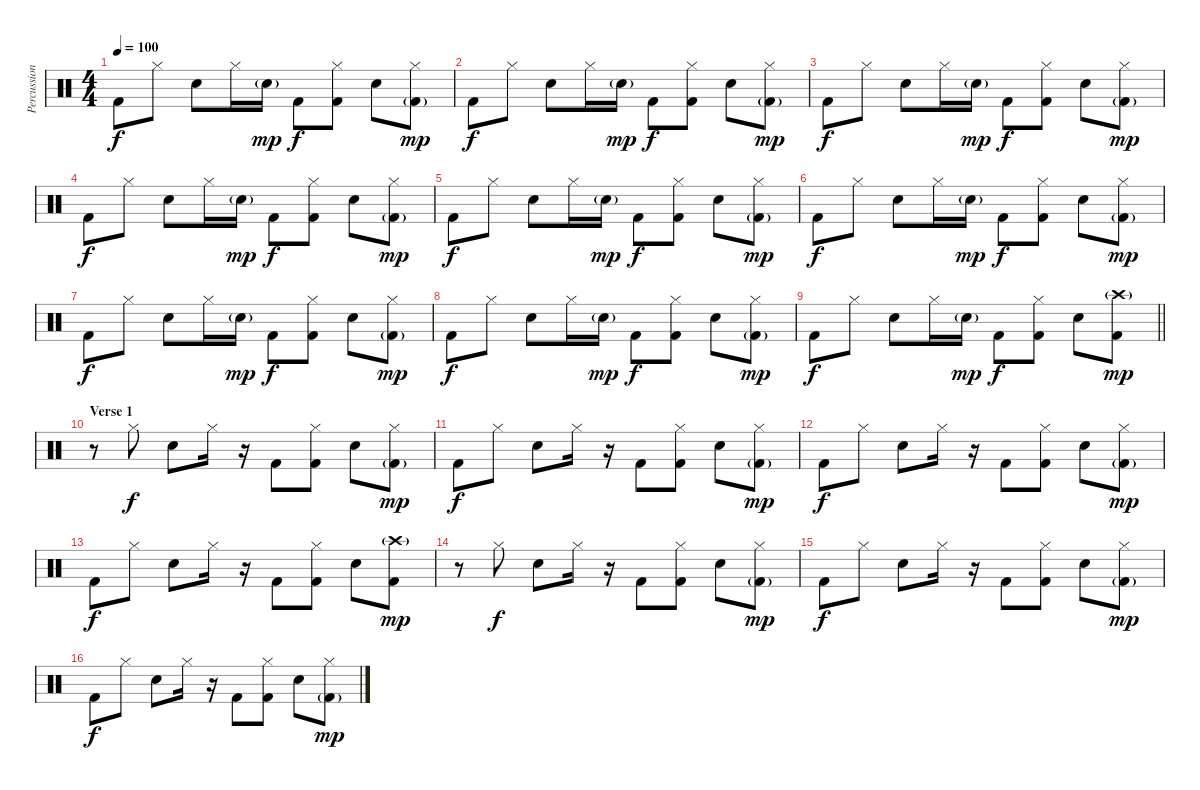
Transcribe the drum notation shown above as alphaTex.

\track ("Percussion" "Percussion") {instrument percussion}
\staff {score}
\articulation defaults
\ts (4 4)
\tempo 100
\clef neutral
\ks c "Kick (hit) 2".8{dy f} "Hi-Hat (closed)".8 "Snare (hit) 2".8 "Hi-Hat (closed)".16 "Snare (hit) 2"{g}.16{dy mp} "Kick (hit) 2".8{dy f}
("Hi-Hat (closed)" "Kick (hit) 2").8 "Snare (hit) 2".8 ("Hi-Hat (closed)" "Kick (hit) 2"{g}).8{dy mp} |
"Kick (hit) 2".8{dy f} "Hi-Hat (closed)".8 "Snare (hit) 2".8 "Hi-Hat (closed)".16 "Snare (hit) 2"{g}.16{dy mp} "Kick (hit) 2".8{dy f} ("Hi-Hat (closed)" "Kick (hit) 2").8 "Snare (hit) 2".8 ("Hi-Hat (closed)" "Kick (hit) 2"{g}).8{dy mp} |
"Kick (hit) 2".8{dy f} "Hi-Hat (closed)".8 "Snare (hit) 2".8 "Hi-Hat (closed)".16 "Snare (hit) 2"{g}.16{dy mp} "Kick (hit) 2".8{dy f} ("Hi-Hat (closed)" "Kick (hit) 2").8 "Snare (hit) 2".8 ("Hi-Hat (closed)" "Kick (hit) 2"{g}).8{dy mp} |
"Kick (hit) 2".8{dy f} "Hi-Hat (closed)".8 "Snare (hit) 2".8 "Hi-Hat (closed)".16 "Snare (hit) 2"{g}.16{dy mp} "Kick (hit) 2".8{dy f} ("Hi-Hat (closed)" "Kick (hit) 2").8 "Snare (hit) 2".8 ("Hi-Hat (closed)" "Kick (hit) 2"{g}).8{dy mp} |
"Kick (hit) 2".8{dy f} "Hi-Hat (closed)".8 "Snare (hit) 2".8 "Hi-Hat (closed)".16 "Snare (hit) 2"{g}.16{dy mp} "Kick (hit) 2".8{dy f} ("Hi-Hat (closed)" "Kick (hit) 2").8 "Snare (hit) 2".8 ("Hi-Hat (closed)" "Kick (hit) 2"{g}).8{dy mp} |
"Kick (hit) 2".8{dy f} "Hi-Hat (closed)".8 "Snare (hit) 2".8 "Hi-Hat (closed)".16 "Snare (hit) 2"{g}.16{dy mp} "Kick (hit) 2".8{dy f} ("Hi-Hat (closed)" "Kick (hit) 2").8 "Snare (hit) 2".8 ("Hi-Hat (closed)" "Kick (hit) 2"{g}).8{dy mp} |
"Kick (hit) 2".8{dy f} "Hi-Hat (closed)".8 "Snare (hit) 2".8 "Hi-Hat (closed)".16 "Snare (hit) 2"{g}.16{dy mp} "Kick (hit) 2".8{dy f} ("Hi-Hat (closed)" "Kick (hit) 2").8 "Snare (hit) 2".8 ("Hi-Hat (closed)" "Kick (hit) 2"{g}).8{dy mp} |
"Kick (hit) 2".8{dy f} "Hi-Hat (closed)".8 "Snare (hit) 2".8 "Hi-Hat (closed)".16 "Snare (hit) 2"{g}.16{dy mp} "Kick (hit) 2".8{dy f} ("Hi-Hat (closed)" "Kick (hit) 2").8 "Snare (hit) 2".8 ("Hi-Hat (closed)" "Kick (hit) 2"{g}).8{dy mp} |
\barLineRight lightlight "Kick (hit) 2".8{dy f} "Hi-Hat (closed)".8 "Snare (hit) 2".8 "Hi-Hat (closed)".16 "Snare (hit) 2"{g}.16{dy mp} "Kick (hit) 2".8{dy f}
("Hi-Hat (closed)" "Kick (hit) 2").8 "Snare (hit) 2".8 ("Crash high (hit)"{g} "Kick (hit) 2").8{dy mp} |
\section ("" "Verse 1")
r.8 "Hi-Hat (closed)".8{dy f} "Snare (hit) 2".8 "Hi-Hat (closed)".16 r.16 "Kick (hit) 2".8 ("Hi-Hat (closed)" "Kick (hit) 2").8 "Snare (hit) 2".8 ("Hi-Hat (closed)" "Kick (hit) 2"{g}).8{dy mp} |
"Kick (hit) 2".8{dy f} "Hi-Hat (closed)".8 "Snare (hit) 2".8 "Hi-Hat (closed)".16 r.16 "Kick (hit) 2".8 ("Hi-Hat (closed)" "Kick (hit) 2").8 "Snare (hit) 2".8 ("Hi-Hat (closed)" "Kick (hit) 2"{g}).8{dy mp} |
"Kick (hit) 2".8{dy f} "Hi-Hat (closed)".8 "Snare (hit) 2".8 "Hi-Hat (closed)".16 r.16 "Kick (hit) 2".8 ("Hi-Hat (closed)" "Kick (hit) 2").8 "Snare (hit) 2".8 ("Hi-Hat (closed)" "Kick (hit) 2"{g}).8{dy mp} |
"Kick (hit) 2".8{dy f} "Hi-Hat (closed)".8 "Snare (hit) 2".8 "Hi-Hat (closed)".16 r.16 "Kick (hit) 2".8 ("Hi-Hat (closed)" "Kick (hit) 2").8 "Snare (hit) 2".8 ("Crash high (hit)"{g} "Kick (hit) 2").8{dy mp} |
r.8 "Hi-Hat (closed)".8{dy f} "Snare (hit) 2".8 "Hi-Hat (closed)".16 r.16 "Kick (hit) 2".8 ("Hi-Hat (closed)" "Kick (hit) 2").8 "Snare (hit) 2".8 ("Hi-Hat (closed)" "Kick (hit) 2"{g}).8{dy mp} |
"Kick (hit) 2".8{dy f} "Hi-Hat (closed)".8 "Snare (hit) 2".8 "Hi-Hat (closed)".16 r.16 "Kick (hit) 2".8 ("Hi-Hat (closed)" "Kick (hit) 2").8 "Snare (hit) 2".8 ("Hi-Hat (closed)" "Kick (hit) 2"{g}).8{dy mp} |
"Kick (hit) 2".8{dy f} "Hi-Hat (closed)".8 "Snare (hit) 2".8 "Hi-Hat (closed)".16 r.16 "Kick (hit) 2".8 ("Hi-Hat (closed)" "Kick (hit) 2").8 "Snare (hit) 2".8 ("Hi-Hat (closed)" "Kick (hit) 2"{g}).8{dy mp}
